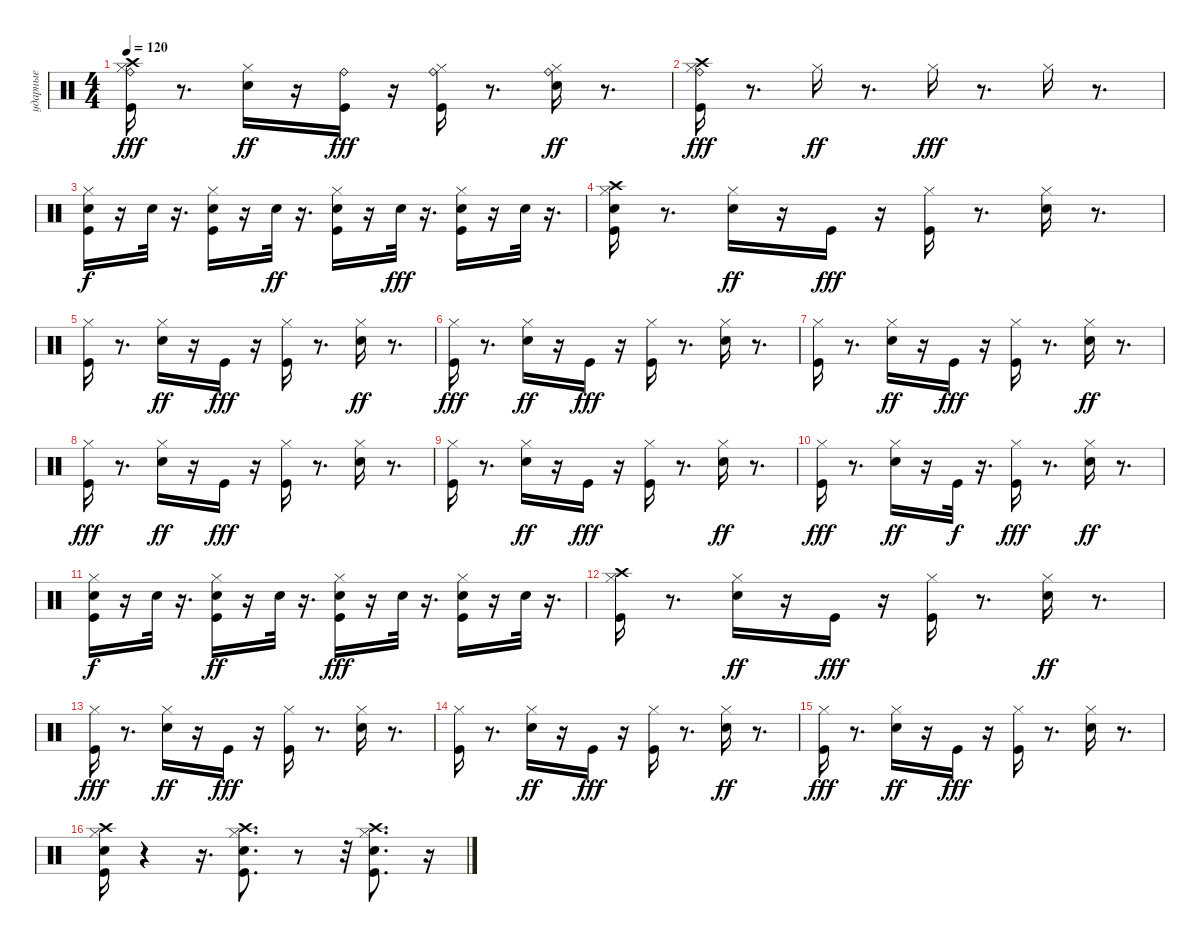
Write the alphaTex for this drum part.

\track ("ударные" "ударные") {instrument percussion}
\staff {score}
\articulation defaults
\ts (4 4)
\tempo 120
\clef neutral
\ks c
("Ride (bell)" "Crash high (hit)" "Hi-Hat (closed)" "Kick (hit)").16{dy fff} r.8{d} ("Electric Snare (hit)" "Hi-Hat (closed)").16{dy ff} r.16 ("Ride (bell)" "Kick (hit)").16{dy fff} r.16 ("Ride (bell)" "Kick (hit)" "Hi-Hat (closed)").16 r.8{d} ("Ride (bell)" "Electric Snare (hit)" "Hi-Hat (closed)").16{dy ff} r.8{d} |
("Ride (bell)" "Crash high (hit)" "Hi-Hat (closed)" "Kick (hit)").16{dy fff} r.8{d} "Hi-Hat (closed)".16{dy ff} r.8{d} "Hi-Hat (closed)".16{dy fff} r.8{d} "Hi-Hat (closed)".16 r.8{d} |
("Electric Snare (hit)" "Hi-Hat (closed)" "Kick (hit)").16{dy f} r.16 "Electric Snare (hit)".32 r.16{d} ("Kick (hit)" "Electric Snare (hit)" "Hi-Hat (closed)").16 r.16 "Electric Snare (hit)".32{dy ff} r.16{d} ("Kick (hit)" "Electric Snare (hit)" "Hi-Hat (closed)").16 r.16 "Electric Snare (hit)".32{dy fff} r.16{d} ("Kick (hit)" "Electric Snare (hit)" "Hi-Hat (closed)").16 r.16 "Electric Snare (hit)".32 r.16{d} |
("Electric Snare (hit)" "Crash high (hit)" "Hi-Hat (closed)" "Kick (hit)").16 r.8{d} ("Electric Snare (hit)" "Hi-Hat (closed)").16{dy ff} r.16 "Kick (hit)".16{dy fff} r.16 ("Kick (hit)" "Hi-Hat (closed)").16 r.8{d} ("Electric Snare (hit)" "Hi-Hat (closed)").16 r.8{d} |
("Hi-Hat (closed)" "Kick (hit)").16 r.8{d} ("Electric Snare (hit)" "Hi-Hat (closed)").16{dy ff} r.16 "Kick (hit)".16{dy fff} r.16 ("Kick (hit)" "Hi-Hat (closed)").16 r.8{d} ("Electric Snare (hit)" "Hi-Hat (closed)").16{dy ff} r.8{d} |
("Hi-Hat (closed)" "Kick (hit)").16{dy fff} r.8{d} ("Electric Snare (hit)" "Hi-Hat (closed)").16{dy ff} r.16 "Kick (hit)".16{dy fff} r.16 ("Kick (hit)" "Hi-Hat (closed)").16 r.8{d} ("Electric Snare (hit)" "Hi-Hat (closed)").16 r.8{d} |
("Hi-Hat (closed)" "Kick (hit)").16 r.8{d} ("Electric Snare (hit)" "Hi-Hat (closed)").16{dy ff} r.16 "Kick (hit)".16{dy fff} r.16 ("Kick (hit)" "Hi-Hat (closed)").16 r.8{d} ("Electric Snare (hit)" "Hi-Hat (closed)").16{dy ff} r.8{d} |
("Hi-Hat (closed)" "Kick (hit)").16{dy fff} r.8{d} ("Electric Snare (hit)" "Hi-Hat (closed)").16{dy ff} r.16 "Kick (hit)".16{dy fff} r.16 ("Kick (hit)" "Hi-Hat (closed)").16 r.8{d} ("Electric Snare (hit)" "Hi-Hat (closed)").16 r.8{d} |
("Hi-Hat (closed)" "Kick (hit)").16 r.8{d} ("Electric Snare (hit)" "Hi-Hat (closed)").16{dy ff} r.16 "Kick (hit)".16{dy fff} r.16 ("Kick (hit)" "Hi-Hat (closed)").16 r.8{d} ("Electric Snare (hit)" "Hi-Hat (closed)").16{dy ff} r.8{d} |
("Hi-Hat (closed)" "Kick (hit)").16{dy fff} r.8{d} ("Electric Snare (hit)" "Hi-Hat (closed)").16{dy ff} r.16 "Kick (hit)".32{dy f} r.16{d} ("Kick (hit)" "Hi-Hat (closed)").16{dy fff} r.8{d} ("Electric Snare (hit)" "Hi-Hat (closed)").16{dy ff} r.8{d} |
("Electric Snare (hit)" "Hi-Hat (closed)" "Kick (hit)").16{dy f} r.16 "Electric Snare (hit)".32 r.16{d} ("Kick (hit)" "Electric Snare (hit)" "Hi-Hat (closed)").16{dy ff} r.16 "Electric Snare (hit)".32 r.16{d} ("Electric Snare (hit)" "Kick (hit)" "Hi-Hat (closed)").16{dy fff} r.16 "Electric Snare (hit)".32 r.16{d} ("Kick (hit)" "Electric Snare (hit)" "Hi-Hat (closed)").16 r.16 "Electric Snare (hit)".32 r.16{d} |
("Crash high (hit)" "Hi-Hat (closed)" "Kick (hit)").16 r.8{d} ("Electric Snare (hit)" "Hi-Hat (closed)").16{dy ff} r.16 "Kick (hit)".16{dy fff} r.16 ("Kick (hit)" "Hi-Hat (closed)").16 r.8{d} ("Electric Snare (hit)" "Hi-Hat (closed)").16{dy ff} r.8{d} |
("Hi-Hat (closed)" "Kick (hit)").16{dy fff} r.8{d} ("Electric Snare (hit)" "Hi-Hat (closed)").16{dy ff} r.16 "Kick (hit)".16{dy fff} r.16 ("Kick (hit)" "Hi-Hat (closed)").16 r.8{d} ("Electric Snare (hit)" "Hi-Hat (closed)").16 r.8{d} |
("Hi-Hat (closed)" "Kick (hit)").16 r.8{d} ("Electric Snare (hit)" "Hi-Hat (closed)").16{dy ff} r.16 "Kick (hit)".16{dy fff} r.16 ("Kick (hit)" "Hi-Hat (closed)").16 r.8{d} ("Electric Snare (hit)" "Hi-Hat (closed)").16{dy ff} r.8{d} |
("Hi-Hat (closed)" "Kick (hit)").16{dy fff} r.8{d} ("Electric Snare (hit)" "Hi-Hat (closed)").16{dy ff} r.16 "Kick (hit)".16{dy fff} r.16 ("Kick (hit)" "Hi-Hat (closed)").16 r.8{d} ("Electric Snare (hit)" "Hi-Hat (closed)").16 r.8{d} |
("Electric Snare (hit)" "Crash high (hit)" "Hi-Hat (closed)" "Kick (hit)").16 r.4 r.16{d} ("Electric Snare (hit)" "Hi-Hat (closed)" "Kick (hit)" "Crash high (hit)").8{d} r.8 r.32 ("Electric Snare (hit)" "Hi-Hat (closed)" "Kick (hit)" "Crash high (hit)").8{d} r.16
